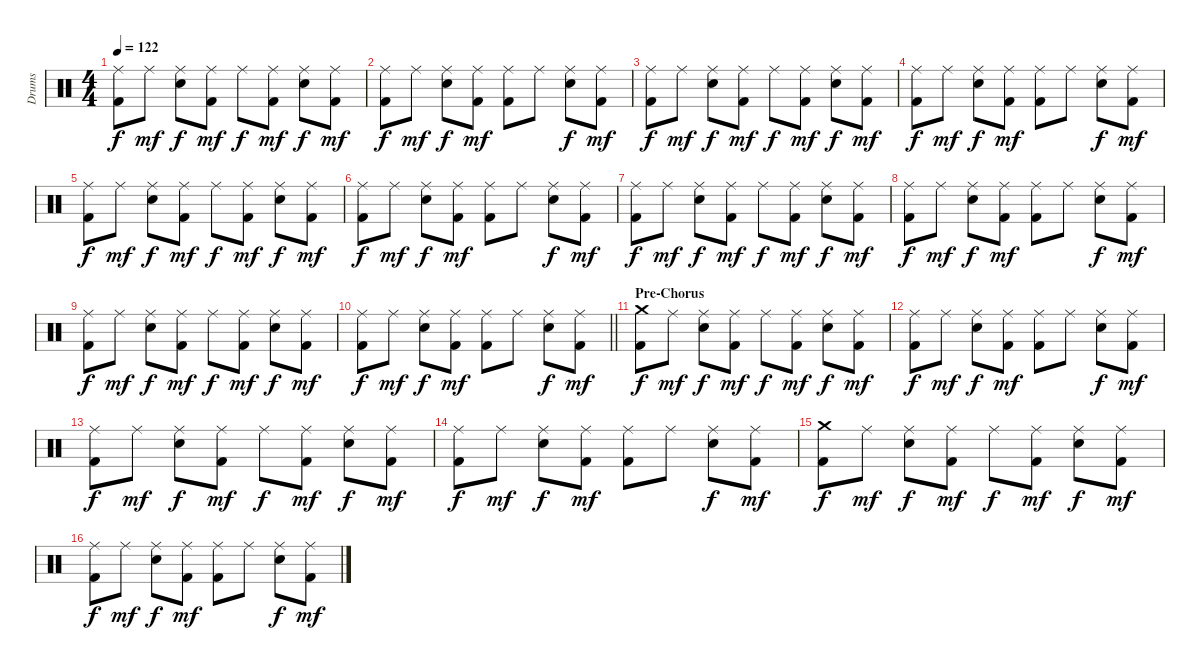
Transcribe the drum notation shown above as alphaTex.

\track ("Drums" "Drums") {instrument percussion}
\staff {score}
\articulation defaults
\ts (4 4)
\tempo 122
\clef neutral
\ks c
("Ride (middle)" "Kick (hit) 2").8{dy f} "Ride (middle)".8{dy mf} ("Ride (middle)" "Snare (hit) 2").8{dy f} ("Ride (middle)" "Kick (hit) 2").8{dy mf} "Ride (middle)".8{dy f} ("Ride (middle)" "Kick (hit) 2").8{dy mf} ("Ride (middle)" "Snare (hit) 2").8{dy f} ("Ride (middle)" "Kick (hit) 2").8{dy mf} |
("Ride (middle)" "Kick (hit) 2").8{dy f} "Ride (middle)".8{dy mf} ("Ride (middle)" "Snare (hit) 2").8{dy f} ("Ride (middle)" "Kick (hit) 2").8{dy mf} ("Ride (middle)" "Kick (hit) 2").8 "Ride (middle)".8 ("Ride (middle)" "Snare (hit) 2").8{dy f} ("Ride (middle)" "Kick (hit) 2").8{dy mf} |
("Ride (middle)" "Kick (hit) 2").8{dy f} "Ride (middle)".8{dy mf} ("Ride (middle)" "Snare (hit) 2").8{dy f} ("Ride (middle)" "Kick (hit) 2").8{dy mf} "Ride (middle)".8{dy f} ("Ride (middle)" "Kick (hit) 2").8{dy mf} ("Ride (middle)" "Snare (hit) 2").8{dy f} ("Ride (middle)" "Kick (hit) 2").8{dy mf} |
("Ride (middle)" "Kick (hit) 2").8{dy f} "Ride (middle)".8{dy mf} ("Ride (middle)" "Snare (hit) 2").8{dy f} ("Ride (middle)" "Kick (hit) 2").8{dy mf} ("Ride (middle)" "Kick (hit) 2").8 "Ride (middle)".8 ("Ride (middle)" "Snare (hit) 2").8{dy f} ("Ride (middle)" "Kick (hit) 2").8{dy mf} |
("Ride (middle)" "Kick (hit) 2").8{dy f} "Ride (middle)".8{dy mf} ("Ride (middle)" "Snare (hit) 2").8{dy f} ("Ride (middle)" "Kick (hit) 2").8{dy mf} "Ride (middle)".8{dy f} ("Ride (middle)" "Kick (hit) 2").8{dy mf} ("Ride (middle)" "Snare (hit) 2").8{dy f} ("Ride (middle)" "Kick (hit) 2").8{dy mf} |
("Ride (middle)" "Kick (hit) 2").8{dy f} "Ride (middle)".8{dy mf} ("Ride (middle)" "Snare (hit) 2").8{dy f} ("Ride (middle)" "Kick (hit) 2").8{dy mf} ("Ride (middle)" "Kick (hit) 2").8 "Ride (middle)".8 ("Ride (middle)" "Snare (hit) 2").8{dy f} ("Ride (middle)" "Kick (hit) 2").8{dy mf} |
("Ride (middle)" "Kick (hit) 2").8{dy f} "Ride (middle)".8{dy mf} ("Ride (middle)" "Snare (hit) 2").8{dy f} ("Ride (middle)" "Kick (hit) 2").8{dy mf} "Ride (middle)".8{dy f} ("Ride (middle)" "Kick (hit) 2").8{dy mf} ("Ride (middle)" "Snare (hit) 2").8{dy f} ("Ride (middle)" "Kick (hit) 2").8{dy mf} |
("Ride (middle)" "Kick (hit) 2").8{dy f} "Ride (middle)".8{dy mf} ("Ride (middle)" "Snare (hit) 2").8{dy f} ("Ride (middle)" "Kick (hit) 2").8{dy mf} ("Ride (middle)" "Kick (hit) 2").8 "Ride (middle)".8 ("Ride (middle)" "Snare (hit) 2").8{dy f} ("Ride (middle)" "Kick (hit) 2").8{dy mf} |
("Ride (middle)" "Kick (hit) 2").8{dy f} "Ride (middle)".8{dy mf} ("Ride (middle)" "Snare (hit) 2").8{dy f} ("Ride (middle)" "Kick (hit) 2").8{dy mf} "Ride (middle)".8{dy f} ("Ride (middle)" "Kick (hit) 2").8{dy mf} ("Ride (middle)" "Snare (hit) 2").8{dy f} ("Ride (middle)" "Kick (hit) 2").8{dy mf} |
\barLineRight lightlight
("Ride (middle)" "Kick (hit) 2").8{dy f} "Ride (middle)".8{dy mf} ("Ride (middle)" "Snare (hit) 2").8{dy f} ("Ride (middle)" "Kick (hit) 2").8{dy mf} ("Ride (middle)" "Kick (hit) 2").8 "Ride (middle)".8 ("Ride (middle)" "Snare (hit) 2").8{dy f} ("Ride (middle)" "Kick (hit) 2").8{dy mf} |
\section ("" "Pre-Chorus")
("Crash medium (hit)" "Kick (hit) 2").8{dy f} "Ride (middle)".8{dy mf} ("Ride (middle)" "Snare (hit) 2").8{dy f} ("Ride (middle)" "Kick (hit) 2").8{dy mf} "Ride (middle)".8{dy f} ("Ride (middle)" "Kick (hit) 2").8{dy mf} ("Ride (middle)" "Snare (hit) 2").8{dy f} ("Ride (middle)" "Kick (hit) 2").8{dy mf} |
("Ride (middle)" "Kick (hit) 2").8{dy f} "Ride (middle)".8{dy mf} ("Ride (middle)" "Snare (hit) 2").8{dy f} ("Ride (middle)" "Kick (hit) 2").8{dy mf} ("Ride (middle)" "Kick (hit) 2").8 "Ride (middle)".8 ("Ride (middle)" "Snare (hit) 2").8{dy f} ("Ride (middle)" "Kick (hit) 2").8{dy mf} |
("Ride (middle)" "Kick (hit) 2").8{dy f} "Ride (middle)".8{dy mf} ("Ride (middle)" "Snare (hit) 2").8{dy f} ("Ride (middle)" "Kick (hit) 2").8{dy mf} "Ride (middle)".8{dy f} ("Ride (middle)" "Kick (hit) 2").8{dy mf} ("Ride (middle)" "Snare (hit) 2").8{dy f} ("Ride (middle)" "Kick (hit) 2").8{dy mf} |
("Ride (middle)" "Kick (hit) 2").8{dy f} "Ride (middle)".8{dy mf} ("Ride (middle)" "Snare (hit) 2").8{dy f} ("Ride (middle)" "Kick (hit) 2").8{dy mf} ("Ride (middle)" "Kick (hit) 2").8 "Ride (middle)".8 ("Ride (middle)" "Snare (hit) 2").8{dy f} ("Ride (middle)" "Kick (hit) 2").8{dy mf} |
("Crash medium (hit)" "Kick (hit) 2").8{dy f} "Ride (middle)".8{dy mf} ("Ride (middle)" "Snare (hit) 2").8{dy f} ("Ride (middle)" "Kick (hit) 2").8{dy mf} "Ride (middle)".8{dy f} ("Ride (middle)" "Kick (hit) 2").8{dy mf} ("Ride (middle)" "Snare (hit) 2").8{dy f} ("Ride (middle)" "Kick (hit) 2").8{dy mf} |
("Ride (middle)" "Kick (hit) 2").8{dy f} "Ride (middle)".8{dy mf} ("Ride (middle)" "Snare (hit) 2").8{dy f} ("Ride (middle)" "Kick (hit) 2").8{dy mf} ("Ride (middle)" "Kick (hit) 2").8 "Ride (middle)".8 ("Ride (middle)" "Snare (hit) 2").8{dy f} ("Ride (middle)" "Kick (hit) 2").8{dy mf}
